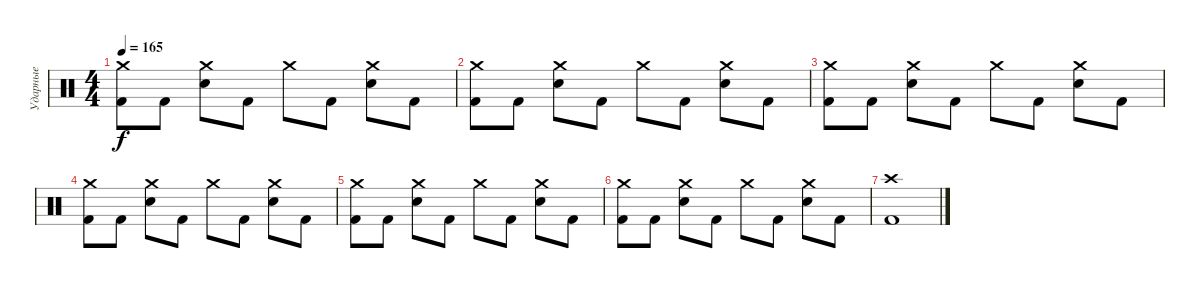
\track ("Ударные" "Ударные") {instrument percussion}
\staff {score}
\articulation defaults
\ts (4 4)
\tempo 165
\clef neutral
\ks c
("Crash medium (hit)" "Kick (hit) 2").8{dy f} "Kick (hit) 2".8 ("Crash medium (hit)" "Electric Snare (hit)").8 "Kick (hit) 2".8 "Crash medium (hit)".8 "Kick (hit) 2".8 ("Crash medium (hit)" "Electric Snare (hit)").8 "Kick (hit) 2".8 |
("Crash medium (hit)" "Kick (hit) 2").8 "Kick (hit) 2".8 ("Crash medium (hit)" "Electric Snare (hit)").8 "Kick (hit) 2".8 "Crash medium (hit)".8 "Kick (hit) 2".8 ("Crash medium (hit)" "Electric Snare (hit)").8 "Kick (hit) 2".8 |
("Crash medium (hit)" "Kick (hit) 2").8 "Kick (hit) 2".8 ("Crash medium (hit)" "Electric Snare (hit)").8 "Kick (hit) 2".8 "Crash medium (hit)".8 "Kick (hit) 2".8 ("Crash medium (hit)" "Electric Snare (hit)").8 "Kick (hit) 2".8 |
("Crash medium (hit)" "Kick (hit) 2").8 "Kick (hit) 2".8 ("Crash medium (hit)" "Electric Snare (hit)").8 "Kick (hit) 2".8 "Crash medium (hit)".8 "Kick (hit) 2".8 ("Crash medium (hit)" "Electric Snare (hit)").8 "Kick (hit) 2".8 |
("Crash medium (hit)" "Kick (hit) 2").8 "Kick (hit) 2".8 ("Crash medium (hit)" "Electric Snare (hit)").8 "Kick (hit) 2".8 "Crash medium (hit)".8 "Kick (hit) 2".8 ("Crash medium (hit)" "Electric Snare (hit)").8 "Kick (hit) 2".8 |
("Crash medium (hit)" "Kick (hit) 2").8 "Kick (hit) 2".8 ("Crash medium (hit)" "Electric Snare (hit)").8 "Kick (hit) 2".8 "Crash medium (hit)".8 "Kick (hit) 2".8 ("Crash medium (hit)" "Electric Snare (hit)").8 "Kick (hit) 2".8 |
("Crash high (hit)" "Kick (hit) 2").1
